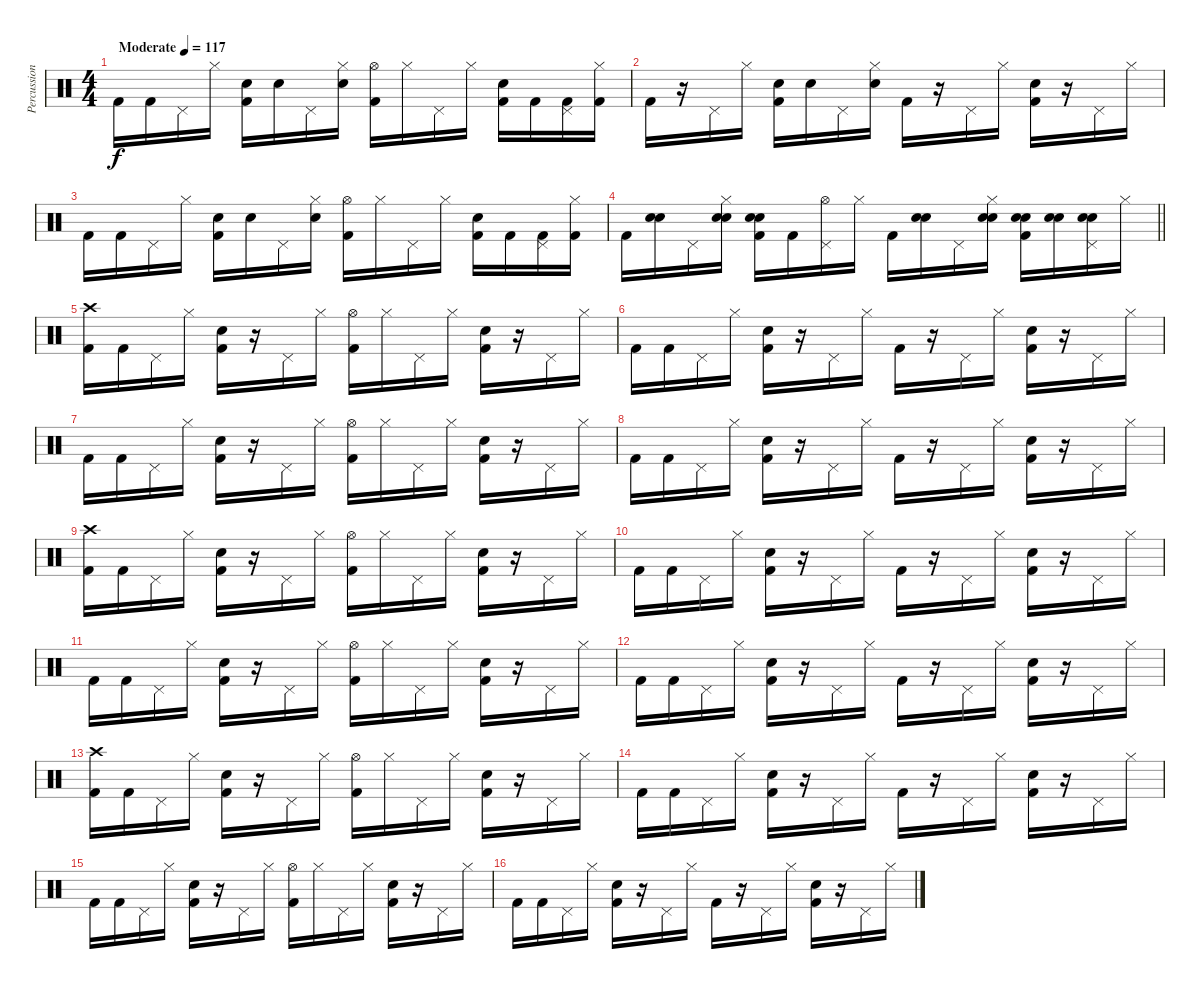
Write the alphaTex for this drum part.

\track ("Percussion" "Percussion") {instrument percussion}
\staff {score}
\articulation defaults
\ts (4 4)
\tempo (117 "Moderate")
\clef neutral
\ks c "Kick (hit) 2".16{dy f} "Kick (hit) 2".16 "Pedal Hi-Hat (hit)".16 "Hi-Hat (closed)".16
("Snare (hit) 2" "Kick (hit) 2").16 "Snare (hit) 2".16 "Pedal Hi-Hat (hit)".16 ("Hi-Hat (closed)" "Snare (hit) 2").16 ("Hi-Hat (open)" "Kick (hit) 2").16 "Hi-Hat (closed)".16 "Pedal Hi-Hat (hit)".16 "Hi-Hat (closed)".16 ("Snare (hit) 2" "Kick (hit) 2").16 "Kick (hit) 2".16 ("Pedal Hi-Hat (hit)" "Kick (hit) 2").16 ("Hi-Hat (closed)" "Kick (hit) 2").16 |
"Kick (hit) 2".16 r.16 "Pedal Hi-Hat (hit)".16 "Hi-Hat (closed)".16 ("Snare (hit) 2" "Kick (hit) 2").16 "Snare (hit) 2".16 "Pedal Hi-Hat (hit)".16 ("Hi-Hat (closed)" "Snare (hit) 2").16 "Kick (hit) 2".16 r.16 "Pedal Hi-Hat (hit)".16 "Hi-Hat (closed)".16 ("Snare (hit) 2" "Kick (hit) 2").16 r.16 "Pedal Hi-Hat (hit)".16 "Hi-Hat (closed)".16 |
"Kick (hit) 2".16 "Kick (hit) 2".16 "Pedal Hi-Hat (hit)".16 "Hi-Hat (closed)".16 ("Snare (hit) 2" "Kick (hit) 2").16 "Snare (hit) 2".16 "Pedal Hi-Hat (hit)".16 ("Hi-Hat (closed)" "Snare (hit) 2").16 ("Hi-Hat (open)" "Kick (hit) 2").16 "Hi-Hat (closed)".16 "Pedal Hi-Hat (hit)".16 "Hi-Hat (closed)".16 ("Snare (hit) 2" "Kick (hit) 2").16 "Kick (hit) 2".16 ("Pedal Hi-Hat (hit)" "Kick (hit) 2").16 ("Hi-Hat (closed)" "Kick (hit) 2").16 |
\barLineRight lightlight "Kick (hit) 2".16
("Hand Clap (hit)" "Snare (hit) 2").16 "Pedal Hi-Hat (hit)".16 ("Hi-Hat (closed)" "Hand Clap (hit)" "Snare (hit) 2").16 ("Hand Clap (hit)" "Snare (hit) 2" "Kick (hit) 2").16 "Kick (hit) 2".16 ("Pedal Hi-Hat (hit)" "Hi-Hat (open)").16 "Hi-Hat (closed)".16 "Kick (hit) 2".16 ("Hand Clap (hit)" "Snare (hit) 2").16 "Pedal Hi-Hat (hit)".16 ("Hi-Hat (closed)" "Hand Clap (hit)" "Snare (hit) 2").16 ("Hand Clap (hit)" "Snare (hit) 2" "Kick (hit) 2").16 ("Hand Clap (hit)" "Snare (hit) 2").16 ("Pedal Hi-Hat (hit)" "Hand Clap (hit)" "Snare (hit) 2").16 "Hi-Hat (closed)".16 |
("Crash high (hit)" "Kick (hit) 2").16 "Kick (hit) 2".16 "Pedal Hi-Hat (hit)".16 "Hi-Hat (closed)".16 ("Snare (hit) 2" "Kick (hit) 2").16 r.16 "Pedal Hi-Hat (hit)".16 "Hi-Hat (closed)".16 ("Hi-Hat (open)" "Kick (hit) 2").16 "Hi-Hat (closed)".16 "Pedal Hi-Hat (hit)".16 "Hi-Hat (closed)".16 ("Snare (hit) 2" "Kick (hit) 2").16 r.16 "Pedal Hi-Hat (hit)".16 "Hi-Hat (closed)".16 |
"Kick (hit) 2".16 "Kick (hit) 2".16 "Pedal Hi-Hat (hit)".16 "Hi-Hat (closed)".16 ("Snare (hit) 2" "Kick (hit) 2").16 r.16 "Pedal Hi-Hat (hit)".16 "Hi-Hat (closed)".16 "Kick (hit) 2".16 r.16 "Pedal Hi-Hat (hit)".16 "Hi-Hat (closed)".16 ("Snare (hit) 2" "Kick (hit) 2").16 r.16 "Pedal Hi-Hat (hit)".16 "Hi-Hat (closed)".16 |
"Kick (hit) 2".16 "Kick (hit) 2".16 "Pedal Hi-Hat (hit)".16 "Hi-Hat (closed)".16 ("Snare (hit) 2" "Kick (hit) 2").16 r.16 "Pedal Hi-Hat (hit)".16 "Hi-Hat (closed)".16 ("Hi-Hat (open)" "Kick (hit) 2").16 "Hi-Hat (closed)".16 "Pedal Hi-Hat (hit)".16 "Hi-Hat (closed)".16 ("Snare (hit) 2" "Kick (hit) 2").16 r.16 "Pedal Hi-Hat (hit)".16 "Hi-Hat (closed)".16 |
"Kick (hit) 2".16 "Kick (hit) 2".16 "Pedal Hi-Hat (hit)".16 "Hi-Hat (closed)".16 ("Snare (hit) 2" "Kick (hit) 2").16 r.16 "Pedal Hi-Hat (hit)".16 "Hi-Hat (closed)".16 "Kick (hit) 2".16 r.16 "Pedal Hi-Hat (hit)".16 "Hi-Hat (closed)".16 ("Snare (hit) 2" "Kick (hit) 2").16 r.16 "Pedal Hi-Hat (hit)".16 "Hi-Hat (closed)".16 |
("Crash high (hit)" "Kick (hit) 2").16 "Kick (hit) 2".16 "Pedal Hi-Hat (hit)".16 "Hi-Hat (closed)".16 ("Snare (hit) 2" "Kick (hit) 2").16 r.16 "Pedal Hi-Hat (hit)".16 "Hi-Hat (closed)".16 ("Hi-Hat (open)" "Kick (hit) 2").16 "Hi-Hat (closed)".16 "Pedal Hi-Hat (hit)".16 "Hi-Hat (closed)".16 ("Snare (hit) 2" "Kick (hit) 2").16 r.16 "Pedal Hi-Hat (hit)".16 "Hi-Hat (closed)".16 |
"Kick (hit) 2".16 "Kick (hit) 2".16 "Pedal Hi-Hat (hit)".16 "Hi-Hat (closed)".16 ("Snare (hit) 2" "Kick (hit) 2").16 r.16 "Pedal Hi-Hat (hit)".16 "Hi-Hat (closed)".16 "Kick (hit) 2".16 r.16 "Pedal Hi-Hat (hit)".16 "Hi-Hat (closed)".16 ("Snare (hit) 2" "Kick (hit) 2").16 r.16 "Pedal Hi-Hat (hit)".16 "Hi-Hat (closed)".16 |
"Kick (hit) 2".16 "Kick (hit) 2".16 "Pedal Hi-Hat (hit)".16 "Hi-Hat (closed)".16 ("Snare (hit) 2" "Kick (hit) 2").16 r.16 "Pedal Hi-Hat (hit)".16 "Hi-Hat (closed)".16 ("Hi-Hat (open)" "Kick (hit) 2").16 "Hi-Hat (closed)".16 "Pedal Hi-Hat (hit)".16 "Hi-Hat (closed)".16 ("Snare (hit) 2" "Kick (hit) 2").16 r.16 "Pedal Hi-Hat (hit)".16 "Hi-Hat (closed)".16 |
"Kick (hit) 2".16 "Kick (hit) 2".16 "Pedal Hi-Hat (hit)".16 "Hi-Hat (closed)".16 ("Snare (hit) 2" "Kick (hit) 2").16 r.16 "Pedal Hi-Hat (hit)".16 "Hi-Hat (closed)".16 "Kick (hit) 2".16 r.16 "Pedal Hi-Hat (hit)".16 "Hi-Hat (closed)".16 ("Snare (hit) 2" "Kick (hit) 2").16 r.16 "Pedal Hi-Hat (hit)".16 "Hi-Hat (closed)".16 |
("Crash high (hit)" "Kick (hit) 2").16 "Kick (hit) 2".16 "Pedal Hi-Hat (hit)".16 "Hi-Hat (closed)".16 ("Snare (hit) 2" "Kick (hit) 2").16 r.16 "Pedal Hi-Hat (hit)".16 "Hi-Hat (closed)".16 ("Hi-Hat (open)" "Kick (hit) 2").16 "Hi-Hat (closed)".16 "Pedal Hi-Hat (hit)".16 "Hi-Hat (closed)".16 ("Snare (hit) 2" "Kick (hit) 2").16 r.16 "Pedal Hi-Hat (hit)".16 "Hi-Hat (closed)".16 |
"Kick (hit) 2".16 "Kick (hit) 2".16 "Pedal Hi-Hat (hit)".16 "Hi-Hat (closed)".16 ("Snare (hit) 2" "Kick (hit) 2").16 r.16 "Pedal Hi-Hat (hit)".16 "Hi-Hat (closed)".16 "Kick (hit) 2".16 r.16 "Pedal Hi-Hat (hit)".16 "Hi-Hat (closed)".16 ("Snare (hit) 2" "Kick (hit) 2").16 r.16 "Pedal Hi-Hat (hit)".16 "Hi-Hat (closed)".16 |
"Kick (hit) 2".16 "Kick (hit) 2".16 "Pedal Hi-Hat (hit)".16 "Hi-Hat (closed)".16 ("Snare (hit) 2" "Kick (hit) 2").16 r.16 "Pedal Hi-Hat (hit)".16 "Hi-Hat (closed)".16 ("Hi-Hat (open)" "Kick (hit) 2").16 "Hi-Hat (closed)".16 "Pedal Hi-Hat (hit)".16 "Hi-Hat (closed)".16 ("Snare (hit) 2" "Kick (hit) 2").16 r.16 "Pedal Hi-Hat (hit)".16 "Hi-Hat (closed)".16 |
"Kick (hit) 2".16 "Kick (hit) 2".16 "Pedal Hi-Hat (hit)".16 "Hi-Hat (closed)".16 ("Snare (hit) 2" "Kick (hit) 2").16 r.16 "Pedal Hi-Hat (hit)".16 "Hi-Hat (closed)".16 "Kick (hit) 2".16 r.16 "Pedal Hi-Hat (hit)".16 "Hi-Hat (closed)".16 ("Snare (hit) 2" "Kick (hit) 2").16 r.16 "Pedal Hi-Hat (hit)".16 "Hi-Hat (closed)".16
